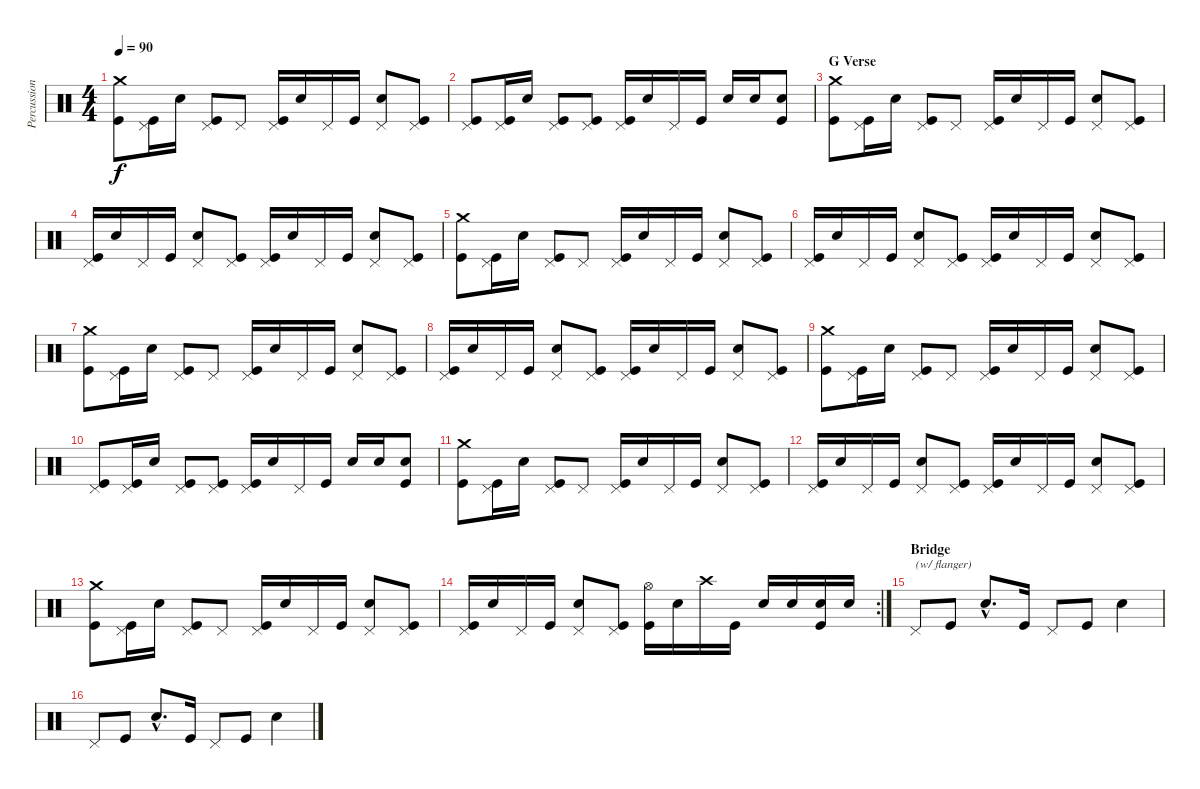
\track ("Percussion" "Percussion") {instrument percussion}
\staff {score}
\articulation defaults
\ts (4 4)
\tempo 90
\clef neutral
\ks c
("Crash medium (hit)" "Kick (hit)").8{dy f} ("Pedal Hi-Hat (hit)" "Kick (hit)").16 "Snare (hit) 2".16 ("Pedal Hi-Hat (hit)" "Kick (hit)").8 "Pedal Hi-Hat (hit)".8 ("Pedal Hi-Hat (hit)" "Kick (hit)").16 "Snare (hit) 2".16 "Pedal Hi-Hat (hit)".16 "Kick (hit)".16 ("Pedal Hi-Hat (hit)" "Snare (hit) 2").8 ("Pedal Hi-Hat (hit)" "Kick (hit)").8 |
("Pedal Hi-Hat (hit)" "Kick (hit)").8 ("Pedal Hi-Hat (hit)" "Kick (hit)").16 "Snare (hit) 2".16 ("Pedal Hi-Hat (hit)" "Kick (hit)").8 ("Pedal Hi-Hat (hit)" "Kick (hit)").8 ("Pedal Hi-Hat (hit)" "Kick (hit)").16 "Snare (hit) 2".16 "Pedal Hi-Hat (hit)".16 "Kick (hit)".16 "Snare (hit) 2".16 "Snare (hit) 2".16 ("Snare (hit) 2" "Kick (hit)").8 |
\section ("" "G Verse")
("Crash medium (hit)" "Kick (hit)").8 ("Pedal Hi-Hat (hit)" "Kick (hit)").16 "Snare (hit) 2".16 ("Pedal Hi-Hat (hit)" "Kick (hit)").8 "Pedal Hi-Hat (hit)".8 ("Pedal Hi-Hat (hit)" "Kick (hit)").16 "Snare (hit) 2".16 "Pedal Hi-Hat (hit)".16 "Kick (hit)".16 ("Pedal Hi-Hat (hit)" "Snare (hit) 2").8 ("Pedal Hi-Hat (hit)" "Kick (hit)").8 |
("Pedal Hi-Hat (hit)" "Kick (hit)").16 "Snare (hit) 2".16 "Pedal Hi-Hat (hit)".16 "Kick (hit)".16 ("Pedal Hi-Hat (hit)" "Snare (hit) 2").8 ("Pedal Hi-Hat (hit)" "Kick (hit)").8 ("Pedal Hi-Hat (hit)" "Kick (hit)").16 "Snare (hit) 2".16 "Pedal Hi-Hat (hit)".16 "Kick (hit)".16 ("Pedal Hi-Hat (hit)" "Snare (hit) 2").8 ("Pedal Hi-Hat (hit)" "Kick (hit)").8 |
("Crash medium (hit)" "Kick (hit)").8 ("Pedal Hi-Hat (hit)" "Kick (hit)").16 "Snare (hit) 2".16 ("Pedal Hi-Hat (hit)" "Kick (hit)").8 "Pedal Hi-Hat (hit)".8 ("Pedal Hi-Hat (hit)" "Kick (hit)").16 "Snare (hit) 2".16 "Pedal Hi-Hat (hit)".16 "Kick (hit)".16 ("Pedal Hi-Hat (hit)" "Snare (hit) 2").8 ("Pedal Hi-Hat (hit)" "Kick (hit)").8 |
("Pedal Hi-Hat (hit)" "Kick (hit)").16 "Snare (hit) 2".16 "Pedal Hi-Hat (hit)".16 "Kick (hit)".16 ("Pedal Hi-Hat (hit)" "Snare (hit) 2").8 ("Pedal Hi-Hat (hit)" "Kick (hit)").8 ("Pedal Hi-Hat (hit)" "Kick (hit)").16 "Snare (hit) 2".16 "Pedal Hi-Hat (hit)".16 "Kick (hit)".16 ("Pedal Hi-Hat (hit)" "Snare (hit) 2").8 ("Pedal Hi-Hat (hit)" "Kick (hit)").8 |
("Crash medium (hit)" "Kick (hit)").8 ("Pedal Hi-Hat (hit)" "Kick (hit)").16 "Snare (hit) 2".16 ("Pedal Hi-Hat (hit)" "Kick (hit)").8 "Pedal Hi-Hat (hit)".8 ("Pedal Hi-Hat (hit)" "Kick (hit)").16 "Snare (hit) 2".16 "Pedal Hi-Hat (hit)".16 "Kick (hit)".16 ("Pedal Hi-Hat (hit)" "Snare (hit) 2").8 ("Pedal Hi-Hat (hit)" "Kick (hit)").8 |
("Pedal Hi-Hat (hit)" "Kick (hit)").16 "Snare (hit) 2".16 "Pedal Hi-Hat (hit)".16 "Kick (hit)".16 ("Pedal Hi-Hat (hit)" "Snare (hit) 2").8 ("Pedal Hi-Hat (hit)" "Kick (hit)").8 ("Pedal Hi-Hat (hit)" "Kick (hit)").16 "Snare (hit) 2".16 "Pedal Hi-Hat (hit)".16 "Kick (hit)".16 ("Pedal Hi-Hat (hit)" "Snare (hit) 2").8 ("Pedal Hi-Hat (hit)" "Kick (hit)").8 |
("Crash medium (hit)" "Kick (hit)").8 ("Pedal Hi-Hat (hit)" "Kick (hit)").16 "Snare (hit) 2".16 ("Pedal Hi-Hat (hit)" "Kick (hit)").8 "Pedal Hi-Hat (hit)".8 ("Pedal Hi-Hat (hit)" "Kick (hit)").16 "Snare (hit) 2".16 "Pedal Hi-Hat (hit)".16 "Kick (hit)".16 ("Pedal Hi-Hat (hit)" "Snare (hit) 2").8 ("Pedal Hi-Hat (hit)" "Kick (hit)").8 |
("Pedal Hi-Hat (hit)" "Kick (hit)").8 ("Pedal Hi-Hat (hit)" "Kick (hit)").16 "Snare (hit) 2".16 ("Pedal Hi-Hat (hit)" "Kick (hit)").8 ("Pedal Hi-Hat (hit)" "Kick (hit)").8 ("Pedal Hi-Hat (hit)" "Kick (hit)").16 "Snare (hit) 2".16 "Pedal Hi-Hat (hit)".16 "Kick (hit)".16 "Snare (hit) 2".16 "Snare (hit) 2".16 ("Snare (hit) 2" "Kick (hit)").8 |
("Crash medium (hit)" "Kick (hit)").8 ("Pedal Hi-Hat (hit)" "Kick (hit)").16 "Snare (hit) 2".16 ("Pedal Hi-Hat (hit)" "Kick (hit)").8 "Pedal Hi-Hat (hit)".8 ("Pedal Hi-Hat (hit)" "Kick (hit)").16 "Snare (hit) 2".16 "Pedal Hi-Hat (hit)".16 "Kick (hit)".16 ("Pedal Hi-Hat (hit)" "Snare (hit) 2").8 ("Pedal Hi-Hat (hit)" "Kick (hit)").8 |
("Pedal Hi-Hat (hit)" "Kick (hit)").16 "Snare (hit) 2".16 "Pedal Hi-Hat (hit)".16 "Kick (hit)".16 ("Pedal Hi-Hat (hit)" "Snare (hit) 2").8 ("Pedal Hi-Hat (hit)" "Kick (hit)").8 ("Pedal Hi-Hat (hit)" "Kick (hit)").16 "Snare (hit) 2".16 "Pedal Hi-Hat (hit)".16 "Kick (hit)".16 ("Pedal Hi-Hat (hit)" "Snare (hit) 2").8 ("Pedal Hi-Hat (hit)" "Kick (hit)").8 |
("Crash medium (hit)" "Kick (hit)").8 ("Pedal Hi-Hat (hit)" "Kick (hit)").16 "Snare (hit) 2".16 ("Pedal Hi-Hat (hit)" "Kick (hit)").8 "Pedal Hi-Hat (hit)".8 ("Pedal Hi-Hat (hit)" "Kick (hit)").16 "Snare (hit) 2".16 "Pedal Hi-Hat (hit)".16 "Kick (hit)".16 ("Pedal Hi-Hat (hit)" "Snare (hit) 2").8 ("Pedal Hi-Hat (hit)" "Kick (hit)").8 |
\rc 2
("Pedal Hi-Hat (hit)" "Kick (hit)").16 "Snare (hit) 2".16 "Pedal Hi-Hat (hit)".16 "Kick (hit)".16 ("Pedal Hi-Hat (hit)" "Snare (hit) 2").8 ("Pedal Hi-Hat (hit)" "Kick (hit)").8 ("Hi-Hat (open)" "Kick (hit)").16 "Snare (hit) 2".16 "Crash high (hit)".16 "Kick (hit)".16 "Snare (hit) 2".16 "Snare (hit) 2".16 ("Snare (hit) 2" "Kick (hit)").16 "Snare (hit) 2".16 |
\section ("" "Bridge")
"Pedal Hi-Hat (hit)".8{txt "(w/ flanger)"} "Kick (hit)".8 "Electric Snare (hit)"{hac}.8{d} "Kick (hit)".16 "Pedal Hi-Hat (hit)".8 "Kick (hit)".8 "Electric Snare (hit)".4 |
"Pedal Hi-Hat (hit)".8 "Kick (hit)".8 "Electric Snare (hit)"{hac}.8{d} "Kick (hit)".16 "Pedal Hi-Hat (hit)".8 "Kick (hit)".8 "Electric Snare (hit)".4
